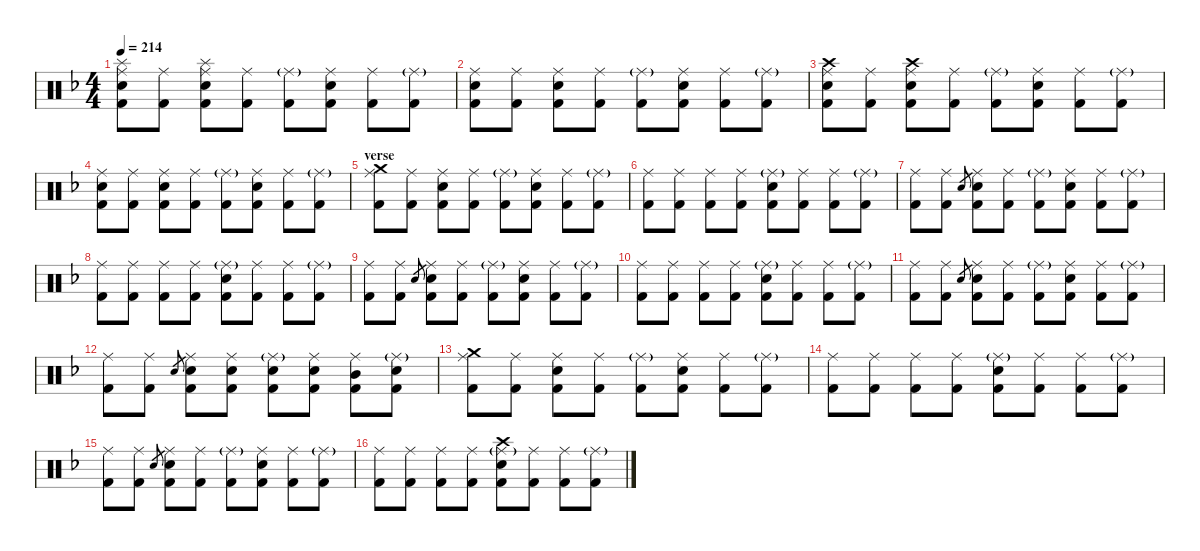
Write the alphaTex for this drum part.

\hideDynamics
\bracketExtendMode nobrackets
\singleTrackTrackNamePolicy hidden
\multiTrackTrackNamePolicy hidden
\firstSystemTrackNameMode fullname
\firstSystemTrackNameOrientation horizontal
\otherSystemsTrackNameOrientation horizontal
\track ("Drumkit" "Drums") {defaultSystemsLayout 4 instrument percussion}
\staff {score}
\articulation defaults
\ts (4 4)
\tempo 214
\clef neutral
\ks dminor
("Splash (hit)"{acc forcenatural} "Ride (middle)"{acc forcenatural} "Snare (hit) 2"{acc forcenatural} "Kick (hit) 2"{acc forcenatural}).8{dy f beam Down} ("Ride (middle)"{acc forcenatural} "Kick (hit) 2"{acc forcenatural}).8{dy mf beam Down} ("Splash (hit)"{acc forcenatural} "Ride (middle)"{acc forcenatural} "Snare (hit) 2"{acc forcenatural} "Kick (hit) 2"{acc forcenatural}).8{dy f beam Down} ("Ride (middle)"{acc forcenatural} "Kick (hit) 2"{acc forcenatural}).8{dy mf beam Down} ("Ride (middle)"{g acc forcenatural} "Kick (hit) 2"{acc forcenatural}).8{dy f beam Down} ("Ride (middle)"{acc forcenatural} "Snare (hit) 2"{acc forcenatural} "Kick (hit) 2"{acc forcenatural}).8{dy mf beam Down} ("Ride (middle)"{acc forcenatural} "Kick (hit) 2"{acc forcenatural}).8{beam Down} ("Ride (middle)"{g acc forcenatural} "Kick (hit) 2"{acc forcenatural}).8{dy f beam Down} |
("Ride (middle)"{acc forcenatural} "Snare (hit) 2"{acc forcenatural} "Kick (hit) 2"{acc forcenatural}).8{dy mf beam Down} ("Ride (middle)"{acc forcenatural} "Kick (hit) 2"{acc forcenatural}).8{beam Down} ("Ride (middle)"{acc forcenatural} "Snare (hit) 2"{acc forcenatural} "Kick (hit) 2"{acc forcenatural}).8{beam Down} ("Ride (middle)"{acc forcenatural} "Kick (hit) 2"{acc forcenatural}).8{beam Down} ("Ride (middle)"{g acc forcenatural} "Kick (hit) 2"{acc forcenatural}).8{dy f beam Down} ("Ride (middle)"{acc forcenatural} "Snare (hit) 2"{acc forcenatural} "Kick (hit) 2"{acc forcenatural}).8{dy mf beam Down} ("Ride (middle)"{acc forcenatural} "Kick (hit) 2"{acc forcenatural}).8{beam Down} ("Ride (middle)"{g acc forcenatural} "Kick (hit) 2"{acc forcenatural}).8{dy f beam Down} |
("Crash high (hit)"{acc forcenatural} "Ride (middle)"{acc forcenatural} "Snare (hit) 2"{acc forcenatural} "Kick (hit) 2"{acc forcenatural}).8{beam Down} ("Ride (middle)"{acc forcenatural} "Kick (hit) 2"{acc forcenatural}).8{dy mf beam Down} ("Crash high (hit)"{acc forcenatural} "Ride (middle)"{acc forcenatural} "Snare (hit) 2"{acc forcenatural} "Kick (hit) 2"{acc forcenatural}).8{dy f beam Down} ("Ride (middle)"{acc forcenatural} "Kick (hit) 2"{acc forcenatural}).8{dy mf beam Down} ("Ride (middle)"{g acc forcenatural} "Kick (hit) 2"{acc forcenatural}).8{dy f beam Down} ("Ride (middle)"{acc forcenatural} "Snare (hit) 2"{acc forcenatural} "Kick (hit) 2"{acc forcenatural}).8{dy mf beam Down} ("Ride (middle)"{acc forcenatural} "Kick (hit) 2"{acc forcenatural}).8{beam Down} ("Ride (middle)"{g acc forcenatural} "Kick (hit) 2"{acc forcenatural}).8{dy f beam Down} |
("Ride (middle)"{acc forcenatural} "Snare (hit) 2"{acc forcenatural} "Kick (hit) 2"{acc forcenatural}).8{dy mf beam Down} ("Ride (middle)"{acc forcenatural} "Kick (hit) 2"{acc forcenatural}).8{beam Down} ("Ride (middle)"{acc forcenatural} "Snare (hit) 2"{acc forcenatural} "Kick (hit) 2"{acc forcenatural}).8{beam Down} ("Ride (middle)"{acc forcenatural} "Kick (hit) 2"{acc forcenatural}).8{beam Down} ("Ride (middle)"{g acc forcenatural} "Kick (hit) 2"{acc forcenatural}).8{dy f beam Down} ("Ride (middle)"{acc forcenatural} "Snare (hit) 2"{acc forcenatural} "Kick (hit) 2"{acc forcenatural}).8{dy mf beam Down} ("Ride (middle)"{acc forcenatural} "Kick (hit) 2"{acc forcenatural}).8{beam Down} ("Ride (middle)"{g acc forcenatural} "Kick (hit) 2"{acc forcenatural}).8{dy f beam Down} |
\section ("" "verse")
("Crash medium (hit)"{acc forcenatural} "Ride (middle)"{acc forcenatural} "Kick (hit) 2"{acc forcenatural}).8{beam Down} ("Ride (middle)"{acc forcenatural} "Kick (hit) 2"{acc forcenatural}).8{dy mf beam Down} ("Ride (middle)"{acc forcenatural} "Snare (hit) 2"{acc forcenatural} "Kick (hit) 2"{acc forcenatural}).8{beam Down} ("Ride (middle)"{acc forcenatural} "Kick (hit) 2"{acc forcenatural}).8{beam Down} ("Ride (middle)"{g acc forcenatural} "Kick (hit) 2"{acc forcenatural}).8{dy f beam Down} ("Ride (middle)"{acc forcenatural} "Snare (hit) 2"{acc forcenatural} "Kick (hit) 2"{acc forcenatural}).8{dy mf beam Down} ("Ride (middle)"{acc forcenatural} "Kick (hit) 2"{acc forcenatural}).8{beam Down} ("Ride (middle)"{g acc forcenatural} "Kick (hit) 2"{acc forcenatural}).8{dy f beam Down} |
("Ride (middle)"{acc forcenatural} "Kick (hit) 2"{acc forcenatural}).8{dy mf beam Down} ("Ride (middle)"{acc forcenatural} "Kick (hit) 2"{acc forcenatural}).8{beam Down} ("Ride (middle)"{acc forcenatural} "Kick (hit) 2"{acc forcenatural}).8{beam Down} ("Ride (middle)"{acc forcenatural} "Kick (hit) 2"{acc forcenatural}).8{beam Down} ("Ride (middle)"{g acc forcenatural} "Snare (hit) 2"{acc forcenatural} "Kick (hit) 2"{acc forcenatural}).8{dy f beam Down} ("Ride (middle)"{acc forcenatural} "Kick (hit) 2"{acc forcenatural}).8{dy mf beam Down} ("Ride (middle)"{acc forcenatural} "Kick (hit) 2"{acc forcenatural}).8{beam Down} ("Ride (middle)"{g acc forcenatural} "Kick (hit) 2"{acc forcenatural}).8{dy f beam Down} |
("Ride (middle)"{acc forcenatural} "Kick (hit) 2"{acc forcenatural}).8{dy mf beam Down} ("Ride (middle)"{acc forcenatural} "Kick (hit) 2"{acc forcenatural}).8{beam Down} "Snare (hit) 2"{acc forcenatural}.8{gr dy mp beam Up} ("Ride (middle)"{acc forcenatural} "Snare (hit) 2"{acc forcenatural} "Kick (hit) 2"{acc forcenatural}).8{dy mf beam Down} ("Ride (middle)"{acc forcenatural} "Kick (hit) 2"{acc forcenatural}).8{beam Down} ("Ride (middle)"{g acc forcenatural} "Kick (hit) 2"{acc forcenatural}).8{dy f beam Down} ("Ride (middle)"{acc forcenatural} "Snare (hit) 2"{acc forcenatural} "Kick (hit) 2"{acc forcenatural}).8{dy mf beam Down} ("Ride (middle)"{acc forcenatural} "Kick (hit) 2"{acc forcenatural}).8{beam Down} ("Ride (middle)"{g acc forcenatural} "Kick (hit) 2"{acc forcenatural}).8{dy f beam Down} |
("Ride (middle)"{acc forcenatural} "Kick (hit) 2"{acc forcenatural}).8{dy mf beam Down} ("Ride (middle)"{acc forcenatural} "Kick (hit) 2"{acc forcenatural}).8{beam Down} ("Ride (middle)"{acc forcenatural} "Kick (hit) 2"{acc forcenatural}).8{beam Down} ("Ride (middle)"{acc forcenatural} "Kick (hit) 2"{acc forcenatural}).8{beam Down} ("Ride (middle)"{g acc forcenatural} "Snare (hit) 2"{acc forcenatural} "Kick (hit) 2"{acc forcenatural}).8{dy f beam Down} ("Ride (middle)"{acc forcenatural} "Kick (hit) 2"{acc forcenatural}).8{dy mf beam Down} ("Ride (middle)"{acc forcenatural} "Kick (hit) 2"{acc forcenatural}).8{beam Down} ("Ride (middle)"{g acc forcenatural} "Kick (hit) 2"{acc forcenatural}).8{dy f beam Down} |
("Ride (middle)"{acc forcenatural} "Kick (hit) 2"{acc forcenatural}).8{dy mf beam Down} ("Ride (middle)"{acc forcenatural} "Kick (hit) 2"{acc forcenatural}).8{beam Down} "Snare (hit) 2"{acc forcenatural}.8{gr dy mp beam Up} ("Ride (middle)"{acc forcenatural} "Snare (hit) 2"{acc forcenatural} "Kick (hit) 2"{acc forcenatural}).8{dy mf beam Down} ("Ride (middle)"{acc forcenatural} "Kick (hit) 2"{acc forcenatural}).8{beam Down} ("Ride (middle)"{g acc forcenatural} "Kick (hit) 2"{acc forcenatural}).8{dy f beam Down} ("Ride (middle)"{acc forcenatural} "Snare (hit) 2"{acc forcenatural} "Kick (hit) 2"{acc forcenatural}).8{dy mf beam Down} ("Ride (middle)"{acc forcenatural} "Kick (hit) 2"{acc forcenatural}).8{beam Down} ("Ride (middle)"{g acc forcenatural} "Kick (hit) 2"{acc forcenatural}).8{dy f beam Down} |
("Ride (middle)"{acc forcenatural} "Kick (hit) 2"{acc forcenatural}).8{dy mf beam Down} ("Ride (middle)"{acc forcenatural} "Kick (hit) 2"{acc forcenatural}).8{beam Down} ("Ride (middle)"{acc forcenatural} "Kick (hit) 2"{acc forcenatural}).8{beam Down} ("Ride (middle)"{acc forcenatural} "Kick (hit) 2"{acc forcenatural}).8{beam Down} ("Ride (middle)"{g acc forcenatural} "Snare (hit) 2"{acc forcenatural} "Kick (hit) 2"{acc forcenatural}).8{dy f beam Down} ("Ride (middle)"{acc forcenatural} "Kick (hit) 2"{acc forcenatural}).8{dy mf beam Down} ("Ride (middle)"{acc forcenatural} "Kick (hit) 2"{acc forcenatural}).8{beam Down} ("Ride (middle)"{g acc forcenatural} "Kick (hit) 2"{acc forcenatural}).8{dy f beam Down} |
("Ride (middle)"{acc forcenatural} "Kick (hit) 2"{acc forcenatural}).8{dy mf beam Down} ("Ride (middle)"{acc forcenatural} "Kick (hit) 2"{acc forcenatural}).8{beam Down} "Snare (hit) 2"{acc forcenatural}.8{gr dy mp beam Up} ("Ride (middle)"{acc forcenatural} "Snare (hit) 2"{acc forcenatural} "Kick (hit) 2"{acc forcenatural}).8{dy mf beam Down} ("Ride (middle)"{acc forcenatural} "Kick (hit) 2"{acc forcenatural}).8{beam Down} ("Ride (middle)"{g acc forcenatural} "Kick (hit) 2"{acc forcenatural}).8{dy f beam Down} ("Ride (middle)"{acc forcenatural} "Snare (hit) 2"{acc forcenatural} "Kick (hit) 2"{acc forcenatural}).8{dy mf beam Down} ("Ride (middle)"{acc forcenatural} "Kick (hit) 2"{acc forcenatural}).8{beam Down} ("Ride (middle)"{g acc forcenatural} "Kick (hit) 2"{acc forcenatural}).8{dy f beam Down} |
("Ride (middle)"{acc forcenatural} "Kick (hit) 2"{acc forcenatural}).8{dy mf beam Down} ("Ride (middle)"{acc forcenatural} "Kick (hit) 2"{acc forcenatural}).8{beam Down} "Snare (hit) 2"{acc forcenatural}.8{gr dy mp beam Up} ("Ride (middle)"{acc forcenatural} "Snare (hit) 2"{acc forcenatural} "Kick (hit) 2"{acc forcenatural}).8{dy mf beam Down} ("Ride (middle)"{acc forcenatural} "Snare (hit) 2"{acc forcenatural} "Kick (hit) 2"{acc forcenatural}).8{beam Down} ("Ride (middle)"{g acc forcenatural} "Snare (hit) 2"{acc forcenatural} "Kick (hit) 2"{acc forcenatural}).8{dy f beam Down} ("Ride (middle)"{acc forcenatural} "Snare (hit) 2"{acc forcenatural} "Kick (hit) 2"{acc forcenatural}).8{dy mf beam Down} ("Ride (middle)"{acc forcenatural} "Mid Tom (hit)"{acc forcenatural} "Kick (hit) 2"{acc forcenatural}).8{beam Down} ("Ride (middle)"{g acc forcenatural} "Snare (hit) 2"{acc forcenatural} "Kick (hit) 2"{acc forcenatural}).8{dy f beam Down} |
("Crash medium (hit)"{acc forcenatural} "Ride (middle)"{acc forcenatural} "Kick (hit) 2"{acc forcenatural}).8{beam Down} ("Ride (middle)"{acc forcenatural} "Kick (hit) 2"{acc forcenatural}).8{dy mf beam Down} ("Ride (middle)"{acc forcenatural} "Snare (hit) 2"{acc forcenatural} "Kick (hit) 2"{acc forcenatural}).8{beam Down} ("Ride (middle)"{acc forcenatural} "Kick (hit) 2"{acc forcenatural}).8{beam Down} ("Ride (middle)"{g acc forcenatural} "Kick (hit) 2"{acc forcenatural}).8{dy f beam Down} ("Ride (middle)"{acc forcenatural} "Snare (hit) 2"{acc forcenatural} "Kick (hit) 2"{acc forcenatural}).8{dy mf beam Down} ("Ride (middle)"{acc forcenatural} "Kick (hit) 2"{acc forcenatural}).8{beam Down} ("Ride (middle)"{g acc forcenatural} "Kick (hit) 2"{acc forcenatural}).8{dy f beam Down} |
("Ride (middle)"{acc forcenatural} "Kick (hit) 2"{acc forcenatural}).8{dy mf beam Down} ("Ride (middle)"{acc forcenatural} "Kick (hit) 2"{acc forcenatural}).8{beam Down} ("Ride (middle)"{acc forcenatural} "Kick (hit) 2"{acc forcenatural}).8{beam Down} ("Ride (middle)"{acc forcenatural} "Kick (hit) 2"{acc forcenatural}).8{beam Down} ("Ride (middle)"{g acc forcenatural} "Snare (hit) 2"{acc forcenatural} "Kick (hit) 2"{acc forcenatural}).8{dy f beam Down} ("Ride (middle)"{acc forcenatural} "Kick (hit) 2"{acc forcenatural}).8{dy mf beam Down} ("Ride (middle)"{acc forcenatural} "Kick (hit) 2"{acc forcenatural}).8{beam Down} ("Ride (middle)"{g acc forcenatural} "Kick (hit) 2"{acc forcenatural}).8{dy f beam Down} |
("Ride (middle)"{acc forcenatural} "Kick (hit) 2"{acc forcenatural}).8{dy mf beam Down} ("Ride (middle)"{acc forcenatural} "Kick (hit) 2"{acc forcenatural}).8{beam Down} "Snare (hit) 2"{acc forcenatural}.8{gr dy mp beam Up} ("Ride (middle)"{acc forcenatural} "Snare (hit) 2"{acc forcenatural} "Kick (hit) 2"{acc forcenatural}).8{dy mf beam Down} ("Ride (middle)"{acc forcenatural} "Kick (hit) 2"{acc forcenatural}).8{beam Down} ("Ride (middle)"{g acc forcenatural} "Kick (hit) 2"{acc forcenatural}).8{dy f beam Down} ("Ride (middle)"{acc forcenatural} "Snare (hit) 2"{acc forcenatural} "Kick (hit) 2"{acc forcenatural}).8{dy mf beam Down} ("Ride (middle)"{acc forcenatural} "Kick (hit) 2"{acc forcenatural}).8{beam Down} ("Ride (middle)"{g acc forcenatural} "Kick (hit) 2"{acc forcenatural}).8{dy f beam Down} |
("Ride (middle)"{acc forcenatural} "Kick (hit) 2"{acc forcenatural}).8{dy mf beam Down} ("Ride (middle)"{acc forcenatural} "Kick (hit) 2"{acc forcenatural}).8{beam Down} ("Ride (middle)"{acc forcenatural} "Kick (hit) 2"{acc forcenatural}).8{beam Down} ("Ride (middle)"{acc forcenatural} "Kick (hit) 2"{acc forcenatural}).8{beam Down} ("Crash high (hit)"{acc forcenatural} "Ride (middle)"{g acc forcenatural} "Snare (hit) 2"{acc forcenatural} "Kick (hit) 2"{acc forcenatural}).8{beam Down} ("Ride (middle)"{acc forcenatural} "Kick (hit) 2"{acc forcenatural}).8{beam Down} ("Ride (middle)"{acc forcenatural} "Kick (hit) 2"{acc forcenatural}).8{beam Down} ("Ride (middle)"{g acc forcenatural} "Kick (hit) 2"{acc forcenatural}).8{dy f beam Down}
